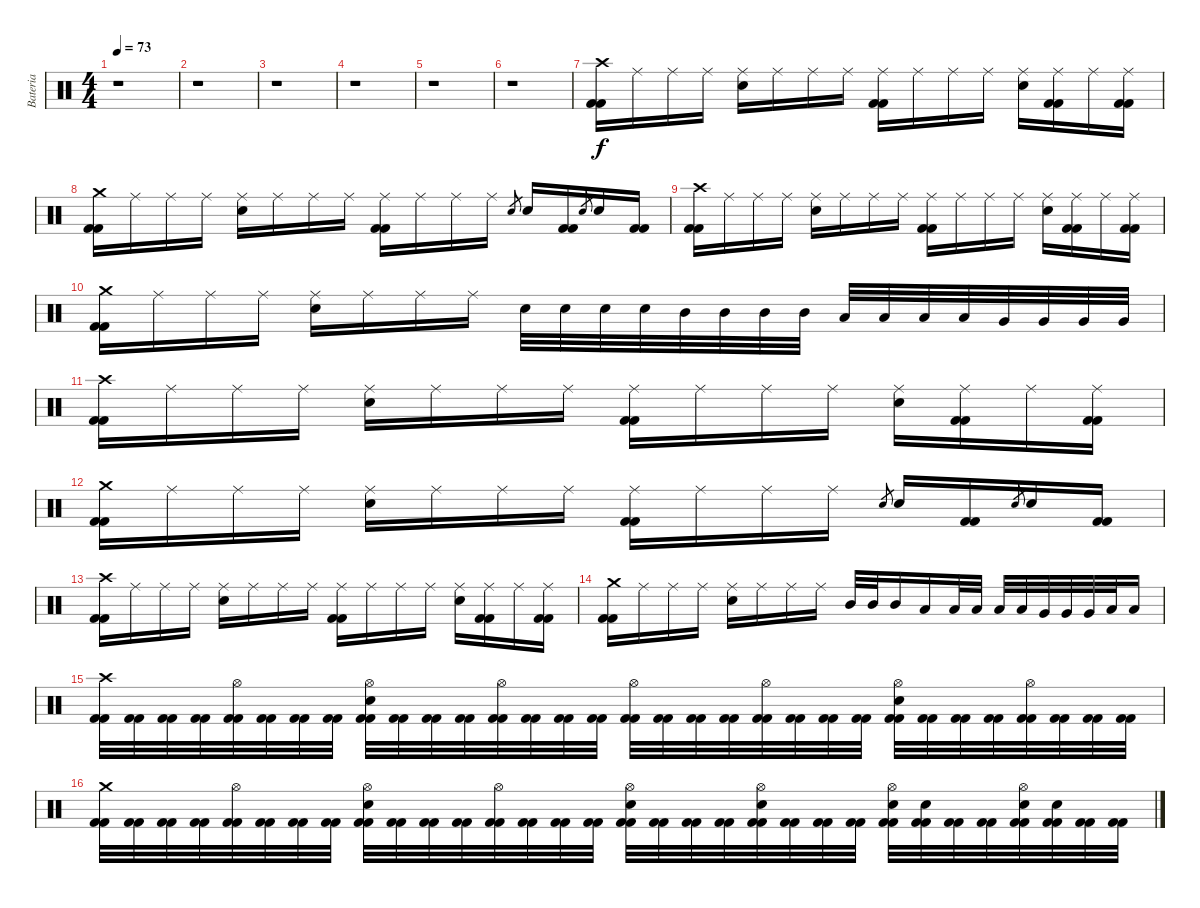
\track ("Bateria" "Bateria") {instrument percussion}
\staff {score}
\articulation defaults
\ts (4 4)
\tempo 73
\clef neutral
\ks c
r.1{dy f} |
r.1 |
r.1 |
r.1 |
r.1 |
r.1 |
("Kick (hit) 2" "Kick (hit) 2" "Crash high (hit)").16 "Ride (middle)".16 "Ride (middle)".16 "Ride (middle)".16 ("Snare (hit) 2" "Ride (middle)").16 "Ride (middle)".16 "Ride (middle)".16 "Ride (middle)".16 ("Kick (hit) 2" "Kick (hit) 2" "Ride (middle)").16 "Ride (middle)".16 "Ride (middle)".16 "Ride (middle)".16 ("Snare (hit) 2" "Ride (middle)").16 ("Kick (hit) 2" "Kick (hit) 2" "Ride (middle)").16 "Ride (middle)".16 ("Kick (hit) 2" "Kick (hit) 2" "Ride (middle)").16 |
("Kick (hit) 2" "Kick (hit) 2" "Crash medium (hit)").16 "Ride (middle)".16 "Ride (middle)".16 "Ride (middle)".16 ("Snare (hit) 2" "Ride (middle)").16 "Ride (middle)".16 "Ride (middle)".16 "Ride (middle)".16 ("Kick (hit) 2" "Kick (hit) 2" "Ride (middle)").16 "Ride (middle)".16 "Ride (middle)".16 "Ride (middle)".16 "Snare (hit) 2".8{gr} "Snare (hit) 2".16 ("Kick (hit) 2" "Kick (hit) 2").16 "Snare (hit) 2".8{gr} "Snare (hit) 2".16 ("Kick (hit) 2" "Kick (hit) 2").16 |
("Kick (hit) 2" "Kick (hit) 2" "Crash high (hit)").16 "Ride (middle)".16 "Ride (middle)".16 "Ride (middle)".16 ("Snare (hit) 2" "Ride (middle)").16 "Ride (middle)".16 "Ride (middle)".16 "Ride (middle)".16 ("Kick (hit) 2" "Kick (hit) 2" "Ride (middle)").16 "Ride (middle)".16 "Ride (middle)".16 "Ride (middle)".16 ("Snare (hit) 2" "Ride (middle)").16 ("Kick (hit) 2" "Kick (hit) 2" "Ride (middle)").16 "Ride (middle)".16 ("Kick (hit) 2" "Kick (hit) 2" "Ride (middle)").16 |
("Kick (hit) 2" "Kick (hit) 2" "Crash medium (hit)").16 "Ride (middle)".16 "Ride (middle)".16 "Ride (middle)".16 ("Snare (hit) 2" "Ride (middle)").16 "Ride (middle)".16 "Ride (middle)".16 "Ride (middle)".16 "Snare (hit) 2".32 "Snare (hit) 2".32 "Snare (hit) 2".32 "Snare (hit) 2".32 "Mid Tom (hit)".32 "Mid Tom (hit)".32 "Mid Tom (hit)".32 "Mid Tom (hit)".32 "Low Tom (hit)".32 "Low Tom (hit)".32 "Low Tom (hit)".32 "Low Tom (hit)".32 "Very Low Tom (hit)".32 "Very Low Tom (hit)".32 "Very Low Tom (hit)".32 "Very Low Tom (hit)".32 |
("Kick (hit) 2" "Kick (hit) 2" "Crash high (hit)").16 "Ride (middle)".16 "Ride (middle)".16 "Ride (middle)".16 ("Snare (hit) 2" "Ride (middle)").16 "Ride (middle)".16 "Ride (middle)".16 "Ride (middle)".16 ("Kick (hit) 2" "Kick (hit) 2" "Ride (middle)").16 "Ride (middle)".16 "Ride (middle)".16 "Ride (middle)".16 ("Snare (hit) 2" "Ride (middle)").16 ("Kick (hit) 2" "Kick (hit) 2" "Ride (middle)").16 "Ride (middle)".16 ("Kick (hit) 2" "Kick (hit) 2" "Ride (middle)").16 |
("Kick (hit) 2" "Kick (hit) 2" "Crash medium (hit)").16 "Ride (middle)".16 "Ride (middle)".16 "Ride (middle)".16 ("Snare (hit) 2" "Ride (middle)").16 "Ride (middle)".16 "Ride (middle)".16 "Ride (middle)".16 ("Kick (hit) 2" "Kick (hit) 2" "Ride (middle)").16 "Ride (middle)".16 "Ride (middle)".16 "Ride (middle)".16 "Snare (hit) 2".8{gr} "Snare (hit) 2".16 ("Kick (hit) 2" "Kick (hit) 2").16 "Snare (hit) 2".8{gr} "Snare (hit) 2".16 ("Kick (hit) 2" "Kick (hit) 2").16 |
("Kick (hit) 2" "Kick (hit) 2" "Crash high (hit)").16 "Ride (middle)".16 "Ride (middle)".16 "Ride (middle)".16 ("Snare (hit) 2" "Ride (middle)").16 "Ride (middle)".16 "Ride (middle)".16 "Ride (middle)".16 ("Kick (hit) 2" "Kick (hit) 2" "Ride (middle)").16 "Ride (middle)".16 "Ride (middle)".16 "Ride (middle)".16 ("Snare (hit) 2" "Ride (middle)").16 ("Kick (hit) 2" "Kick (hit) 2" "Ride (middle)").16 "Ride (middle)".16 ("Kick (hit) 2" "Kick (hit) 2" "Ride (middle)").16 |
("Kick (hit) 2" "Kick (hit) 2" "Crash medium (hit)").16 "Ride (middle)".16 "Ride (middle)".16 "Ride (middle)".16 ("Snare (hit) 2" "Ride (middle)").16 "Ride (middle)".16 "Ride (middle)".16 "Ride (middle)".16 "Mid Tom (hit)".32 "Mid Tom (hit)".32 "Mid Tom (hit)".16 "Low Tom (hit)".16 "Low Tom (hit)".32 "Low Tom (hit)".32 "Low Tom (hit)".32 "Low Tom (hit)".32 "Very Low Tom (hit)".32 "Very Low Tom (hit)".32 "Very Low Tom (hit)".32 "Low Floor Tom (hit)".32 "Low Floor Tom (hit)".16 |
("Kick (hit) 2" "Kick (hit) 2" "Crash high (hit)").32 ("Kick (hit) 2" "Kick (hit) 2").32 ("Kick (hit) 2" "Kick (hit) 2").32 ("Kick (hit) 2" "Kick (hit) 2").32 ("Kick (hit) 2" "Kick (hit) 2" "Hi-Hat (open)").32 ("Kick (hit) 2" "Kick (hit) 2").32 ("Kick (hit) 2" "Kick (hit) 2").32 ("Kick (hit) 2" "Kick (hit) 2").32 ("Kick (hit) 2" "Kick (hit) 2" "Snare (hit) 2" "Hi-Hat (open)").32 ("Kick (hit) 2" "Kick (hit) 2").32 ("Kick (hit) 2" "Kick (hit) 2").32 ("Kick (hit) 2" "Kick (hit) 2").32 ("Kick (hit) 2" "Kick (hit) 2" "Hi-Hat (open)").32 ("Kick (hit) 2" "Kick (hit) 2").32 ("Kick (hit) 2" "Kick (hit) 2").32 ("Kick (hit) 2" "Kick (hit) 2").32 ("Kick (hit) 2" "Kick (hit) 2" "Hi-Hat (open)").32 ("Kick (hit) 2" "Kick (hit) 2").32 ("Kick (hit) 2" "Kick (hit) 2").32 ("Kick (hit) 2" "Kick (hit) 2").32 ("Kick (hit) 2" "Kick (hit) 2" "Hi-Hat (open)").32 ("Kick (hit) 2" "Kick (hit) 2").32 ("Kick (hit) 2" "Kick (hit) 2").32 ("Kick (hit) 2" "Kick (hit) 2").32 ("Kick (hit) 2" "Kick (hit) 2" "Snare (hit) 2" "Hi-Hat (open)").32 ("Kick (hit) 2" "Kick (hit) 2").32 ("Kick (hit) 2" "Kick (hit) 2").32 ("Kick (hit) 2" "Kick (hit) 2").32 ("Kick (hit) 2" "Kick (hit) 2" "Hi-Hat (open)").32 ("Kick (hit) 2" "Kick (hit) 2").32 ("Kick (hit) 2" "Kick (hit) 2").32 ("Kick (hit) 2" "Kick (hit) 2").32 |
("Kick (hit) 2" "Kick (hit) 2" "Crash medium (hit)").32 ("Kick (hit) 2" "Kick (hit) 2").32 ("Kick (hit) 2" "Kick (hit) 2").32 ("Kick (hit) 2" "Kick (hit) 2").32 ("Kick (hit) 2" "Kick (hit) 2" "Hi-Hat (open)").32 ("Kick (hit) 2" "Kick (hit) 2").32 ("Kick (hit) 2" "Kick (hit) 2").32 ("Kick (hit) 2" "Kick (hit) 2").32 ("Kick (hit) 2" "Kick (hit) 2" "Snare (hit) 2" "Hi-Hat (open)").32 ("Kick (hit) 2" "Kick (hit) 2").32 ("Kick (hit) 2" "Kick (hit) 2").32 ("Kick (hit) 2" "Kick (hit) 2").32 ("Kick (hit) 2" "Kick (hit) 2" "Hi-Hat (open)").32 ("Kick (hit) 2" "Kick (hit) 2").32 ("Kick (hit) 2" "Kick (hit) 2").32 ("Kick (hit) 2" "Kick (hit) 2").32 ("Kick (hit) 2" "Kick (hit) 2" "Snare (hit) 2" "Hi-Hat (open)").32 ("Kick (hit) 2" "Kick (hit) 2").32 ("Kick (hit) 2" "Kick (hit) 2").32 ("Kick (hit) 2" "Kick (hit) 2").32 ("Kick (hit) 2" "Kick (hit) 2" "Snare (hit) 2" "Hi-Hat (open)").32 ("Kick (hit) 2" "Kick (hit) 2").32 ("Kick (hit) 2" "Kick (hit) 2").32 ("Kick (hit) 2" "Kick (hit) 2").32 ("Kick (hit) 2" "Kick (hit) 2" "Snare (hit) 2" "Hi-Hat (open)").32 ("Kick (hit) 2" "Kick (hit) 2" "Snare (hit) 2").32 ("Kick (hit) 2" "Kick (hit) 2").32 ("Kick (hit) 2" "Kick (hit) 2").32 ("Kick (hit) 2" "Kick (hit) 2" "Snare (hit) 2" "Hi-Hat (open)").32 ("Kick (hit) 2" "Kick (hit) 2" "Snare (hit) 2").32 ("Kick (hit) 2" "Kick (hit) 2").32 ("Kick (hit) 2" "Kick (hit) 2").32
